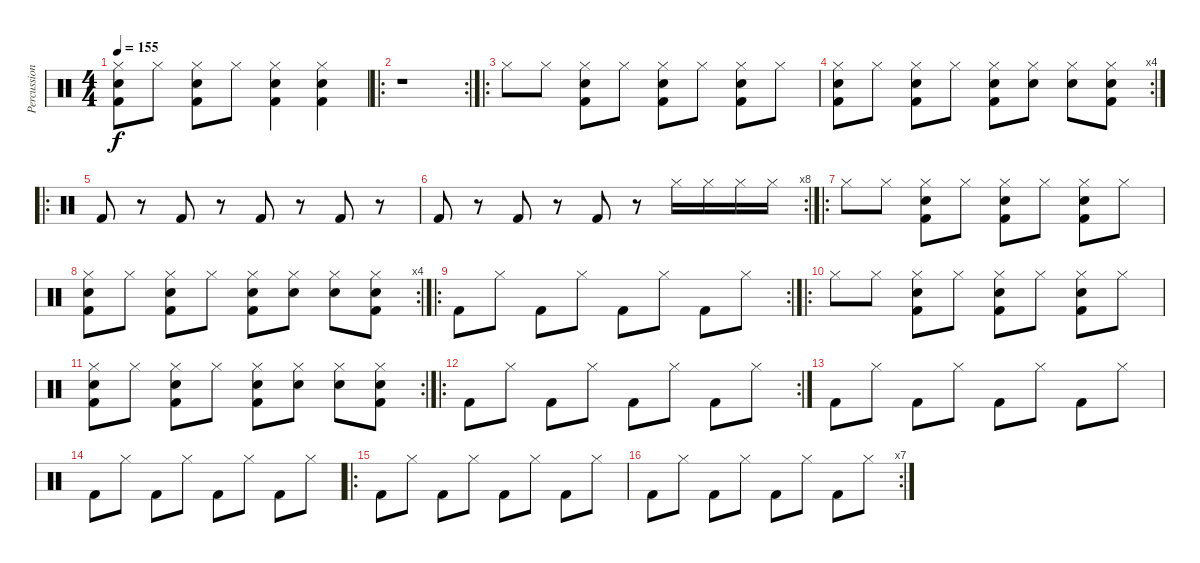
\track ("Percussion" "Percussion") {instrument percussion}
\staff {score}
\articulation defaults
\ts (4 4)
\tempo 155
\clef neutral
\ks c
("Hi-Hat (closed)" "Snare (hit) 2" "Kick (hit) 2").8{dy f} "Hi-Hat (closed)".8 ("Hi-Hat (closed)" "Snare (hit) 2" "Kick (hit) 2").8 "Hi-Hat (closed)".8 ("Hi-Hat (closed)" "Snare (hit) 2" "Kick (hit) 2").4 ("Hi-Hat (closed)" "Snare (hit) 2" "Kick (hit) 2").4 |
\ro
\rc 2
r.1 |
\ro "Hi-Hat (closed)".8 "Hi-Hat (closed)".8
("Hi-Hat (closed)" "Snare (hit) 2" "Kick (hit) 2").8 "Hi-Hat (closed)".8 ("Hi-Hat (closed)" "Snare (hit) 2" "Kick (hit) 2").8 "Hi-Hat (closed)".8 ("Hi-Hat (closed)" "Snare (hit) 2" "Kick (hit) 2").8 "Hi-Hat (closed)".8 |
\rc 4
("Hi-Hat (closed)" "Snare (hit) 2" "Kick (hit) 2").8 "Hi-Hat (closed)".8 ("Hi-Hat (closed)" "Snare (hit) 2" "Kick (hit) 2").8 "Hi-Hat (closed)".8 ("Hi-Hat (closed)" "Snare (hit) 2" "Kick (hit) 2").8 ("Hi-Hat (closed)" "Snare (hit) 2").8 ("Hi-Hat (closed)" "Snare (hit) 2").8 ("Hi-Hat (closed)" "Snare (hit) 2" "Kick (hit) 2").8 |
\ro "Kick (hit) 2".8
r.8 "Kick (hit) 2".8 r.8 "Kick (hit) 2".8 r.8 "Kick (hit) 2".8 r.8 |
\rc 8 "Kick (hit) 2".8
r.8 "Kick (hit) 2".8 r.8 "Kick (hit) 2".8 r.8 "Hi-Hat (closed)".16 "Hi-Hat (closed)".16 "Hi-Hat (closed)".16 "Hi-Hat (closed)".16 |
\ro "Hi-Hat (closed)".8 "Hi-Hat (closed)".8
("Hi-Hat (closed)" "Snare (hit) 2" "Kick (hit) 2").8 "Hi-Hat (closed)".8 ("Hi-Hat (closed)" "Snare (hit) 2" "Kick (hit) 2").8 "Hi-Hat (closed)".8 ("Hi-Hat (closed)" "Snare (hit) 2" "Kick (hit) 2").8 "Hi-Hat (closed)".8 |
\rc 4
("Hi-Hat (closed)" "Snare (hit) 2" "Kick (hit) 2").8 "Hi-Hat (closed)".8 ("Hi-Hat (closed)" "Snare (hit) 2" "Kick (hit) 2").8 "Hi-Hat (closed)".8 ("Hi-Hat (closed)" "Snare (hit) 2" "Kick (hit) 2").8 ("Hi-Hat (closed)" "Snare (hit) 2").8 ("Hi-Hat (closed)" "Snare (hit) 2").8 ("Hi-Hat (closed)" "Snare (hit) 2" "Kick (hit) 2").8 |
\ro
\rc 2 "Kick (hit) 2".8 "Hi-Hat (closed)".8 "Kick (hit) 2".8 "Hi-Hat (closed)".8 "Kick (hit) 2".8 "Hi-Hat (closed)".8 "Kick (hit) 2".8 "Hi-Hat (closed)".8
|
\ro "Hi-Hat (closed)".8 "Hi-Hat (closed)".8
("Hi-Hat (closed)" "Snare (hit) 2" "Kick (hit) 2").8 "Hi-Hat (closed)".8 ("Hi-Hat (closed)" "Snare (hit) 2" "Kick (hit) 2").8 "Hi-Hat (closed)".8 ("Hi-Hat (closed)" "Snare (hit) 2" "Kick (hit) 2").8 "Hi-Hat (closed)".8 |
\rc 2
("Hi-Hat (closed)" "Snare (hit) 2" "Kick (hit) 2").8 "Hi-Hat (closed)".8 ("Hi-Hat (closed)" "Snare (hit) 2" "Kick (hit) 2").8 "Hi-Hat (closed)".8 ("Hi-Hat (closed)" "Snare (hit) 2" "Kick (hit) 2").8 ("Hi-Hat (closed)" "Snare (hit) 2").8 ("Hi-Hat (closed)" "Snare (hit) 2").8 ("Hi-Hat (closed)" "Snare (hit) 2" "Kick (hit) 2").8 |
\ro
\rc 2 "Kick (hit) 2".8 "Hi-Hat (closed)".8 "Kick (hit) 2".8 "Hi-Hat (closed)".8 "Kick (hit) 2".8 "Hi-Hat (closed)".8 "Kick (hit) 2".8 "Hi-Hat (closed)".8
|
"Kick (hit) 2".8 "Hi-Hat (closed)".8 "Kick (hit) 2".8 "Hi-Hat (closed)".8 "Kick (hit) 2".8 "Hi-Hat (closed)".8 "Kick (hit) 2".8 "Hi-Hat (closed)".8 |
"Kick (hit) 2".8 "Hi-Hat (closed)".8 "Kick (hit) 2".8 "Hi-Hat (closed)".8 "Kick (hit) 2".8 "Hi-Hat (closed)".8 "Kick (hit) 2".8 "Hi-Hat (closed)".8 |
\ro "Kick (hit) 2".8 "Hi-Hat (closed)".8 "Kick (hit) 2".8 "Hi-Hat (closed)".8 "Kick (hit) 2".8 "Hi-Hat (closed)".8 "Kick (hit) 2".8 "Hi-Hat (closed)".8
|
\rc 7 "Kick (hit) 2".8 "Hi-Hat (closed)".8 "Kick (hit) 2".8 "Hi-Hat (closed)".8 "Kick (hit) 2".8 "Hi-Hat (closed)".8 "Kick (hit) 2".8 "Hi-Hat (closed)".8
